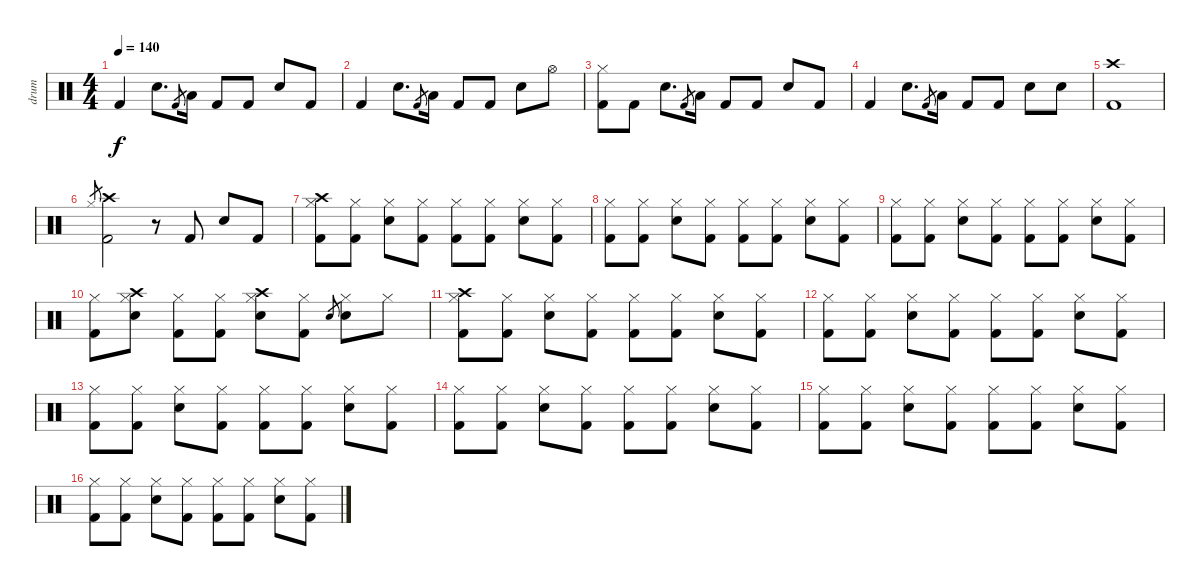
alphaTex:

\track ("drum" "drum") {instrument percussion}
\staff {score}
\articulation defaults
\ts (4 4)
\tempo 140
\clef neutral
\ks c "Kick (hit) 2".4{dy f} "Electric Snare (hit)".8{d} "Kick (hit) 2".8{gr} "Low Floor Tom (hit)".16 "Kick (hit) 2".8 "Kick (hit) 2".8 "Electric Snare (hit)".8 "Kick (hit) 2".8
|
"Kick (hit) 2".4 "Electric Snare (hit)".8{d} "Kick (hit) 2".8{gr} "Low Floor Tom (hit)".16 "Kick (hit) 2".8 "Kick (hit) 2".8 "Electric Snare (hit)".8 "Hi-Hat (open)".8 |
("Hi-Hat (closed)" "Kick (hit) 2").8 "Kick (hit) 2".8 "Electric Snare (hit)".8{d} "Kick (hit) 2".8{gr} "Low Floor Tom (hit)".16 "Kick (hit) 2".8 "Kick (hit) 2".8 "Electric Snare (hit)".8 "Kick (hit) 2".8 |
"Kick (hit) 2".4 "Electric Snare (hit)".8{d} "Kick (hit) 2".8{gr} "Low Floor Tom (hit)".16 "Kick (hit) 2".8 "Kick (hit) 2".8 "Electric Snare (hit)".8 "Electric Snare (hit)".8 |
("Crash high (hit)" "Kick (hit) 2").1 |
"Hi-Hat (closed)".8{gr} ("Crash high (hit)" "Kick (hit) 2").2 r.8 "Kick (hit) 2".8 "Electric Snare (hit)".8 "Kick (hit) 2".8 |
("Crash high (hit)" "Hi-Hat (closed)" "Kick (hit) 2").8 ("Hi-Hat (closed)" "Kick (hit) 2").8 ("Hi-Hat (closed)" "Electric Snare (hit)").8 ("Hi-Hat (closed)" "Kick (hit) 2").8 ("Hi-Hat (closed)" "Kick (hit) 2").8 ("Hi-Hat (closed)" "Kick (hit) 2").8 ("Hi-Hat (closed)" "Electric Snare (hit)").8 ("Hi-Hat (closed)" "Kick (hit) 2").8 |
("Hi-Hat (closed)" "Kick (hit) 2").8 ("Hi-Hat (closed)" "Kick (hit) 2").8 ("Hi-Hat (closed)" "Electric Snare (hit)").8 ("Hi-Hat (closed)" "Kick (hit) 2").8 ("Hi-Hat (closed)" "Kick (hit) 2").8 ("Hi-Hat (closed)" "Kick (hit) 2").8 ("Hi-Hat (closed)" "Electric Snare (hit)").8 ("Hi-Hat (closed)" "Kick (hit) 2").8 |
("Hi-Hat (closed)" "Kick (hit) 2").8 ("Hi-Hat (closed)" "Kick (hit) 2").8 ("Hi-Hat (closed)" "Electric Snare (hit)").8 ("Hi-Hat (closed)" "Kick (hit) 2").8 ("Hi-Hat (closed)" "Kick (hit) 2").8 ("Hi-Hat (closed)" "Kick (hit) 2").8 ("Hi-Hat (closed)" "Electric Snare (hit)").8 ("Hi-Hat (closed)" "Kick (hit) 2").8 |
("Hi-Hat (closed)" "Kick (hit) 2").8 ("Crash high (hit)" "Hi-Hat (closed)" "Electric Snare (hit)").8 ("Hi-Hat (closed)" "Kick (hit) 2").8 ("Hi-Hat (closed)" "Kick (hit) 2").8 ("Crash high (hit)" "Hi-Hat (closed)" "Electric Snare (hit)").8 ("Hi-Hat (closed)" "Kick (hit) 2").8 "Electric Snare (hit)".8{gr} ("Hi-Hat (closed)" "Electric Snare (hit)").8 "Hi-Hat (closed)".8 |
("Crash high (hit)" "Hi-Hat (closed)" "Kick (hit) 2").8 ("Hi-Hat (closed)" "Kick (hit) 2").8 ("Hi-Hat (closed)" "Electric Snare (hit)").8 ("Hi-Hat (closed)" "Kick (hit) 2").8 ("Hi-Hat (closed)" "Kick (hit) 2").8 ("Hi-Hat (closed)" "Kick (hit) 2").8 ("Hi-Hat (closed)" "Electric Snare (hit)").8 ("Hi-Hat (closed)" "Kick (hit) 2").8 |
("Hi-Hat (closed)" "Kick (hit) 2").8 ("Hi-Hat (closed)" "Kick (hit) 2").8 ("Hi-Hat (closed)" "Electric Snare (hit)").8 ("Hi-Hat (closed)" "Kick (hit) 2").8 ("Hi-Hat (closed)" "Kick (hit) 2").8 ("Hi-Hat (closed)" "Kick (hit) 2").8 ("Hi-Hat (closed)" "Electric Snare (hit)").8 ("Hi-Hat (closed)" "Kick (hit) 2").8 |
("Hi-Hat (closed)" "Kick (hit) 2").8 ("Hi-Hat (closed)" "Kick (hit) 2").8 ("Hi-Hat (closed)" "Electric Snare (hit)").8 ("Hi-Hat (closed)" "Kick (hit) 2").8 ("Hi-Hat (closed)" "Kick (hit) 2").8 ("Hi-Hat (closed)" "Kick (hit) 2").8 ("Hi-Hat (closed)" "Electric Snare (hit)").8 ("Hi-Hat (closed)" "Kick (hit) 2").8 |
("Hi-Hat (closed)" "Kick (hit) 2").8 ("Hi-Hat (closed)" "Kick (hit) 2").8 ("Hi-Hat (closed)" "Electric Snare (hit)").8 ("Hi-Hat (closed)" "Kick (hit) 2").8 ("Hi-Hat (closed)" "Kick (hit) 2").8 ("Hi-Hat (closed)" "Kick (hit) 2").8 ("Hi-Hat (closed)" "Electric Snare (hit)").8 ("Hi-Hat (closed)" "Kick (hit) 2").8 |
("Hi-Hat (closed)" "Kick (hit) 2").8 ("Hi-Hat (closed)" "Kick (hit) 2").8 ("Hi-Hat (closed)" "Electric Snare (hit)").8 ("Hi-Hat (closed)" "Kick (hit) 2").8 ("Hi-Hat (closed)" "Kick (hit) 2").8 ("Hi-Hat (closed)" "Kick (hit) 2").8 ("Hi-Hat (closed)" "Electric Snare (hit)").8 ("Hi-Hat (closed)" "Kick (hit) 2").8 |
("Hi-Hat (closed)" "Kick (hit) 2").8 ("Hi-Hat (closed)" "Kick (hit) 2").8 ("Hi-Hat (closed)" "Electric Snare (hit)").8 ("Hi-Hat (closed)" "Kick (hit) 2").8 ("Hi-Hat (closed)" "Kick (hit) 2").8 ("Hi-Hat (closed)" "Kick (hit) 2").8 ("Hi-Hat (closed)" "Electric Snare (hit)").8 ("Hi-Hat (closed)" "Kick (hit) 2").8
